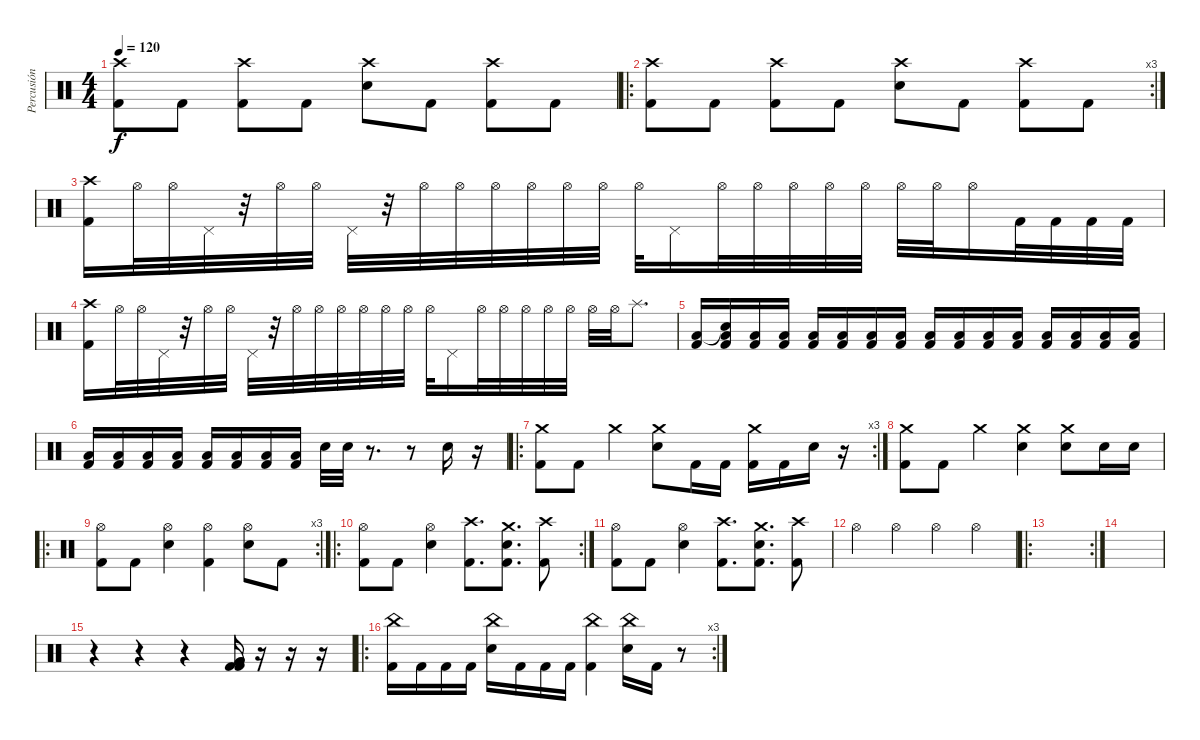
\track ("Percusión" "Percusión") {instrument percussion}
\staff {score}
\articulation defaults
\ts (4 4)
\tempo 120
\clef neutral
\ks c
("Crash high (hit)" "Kick (hit) 2").8{dy f} "Kick (hit) 2".8 ("Crash high (hit)" "Kick (hit) 2").8 "Kick (hit) 2".8 ("Crash high (hit)" "Electric Snare (hit)").8 "Kick (hit) 2".8 ("Crash high (hit)" "Kick (hit) 2").8 "Kick (hit) 2".8 |
\ro
\rc 3
("Crash high (hit)" "Kick (hit) 2").8 "Kick (hit) 2".8 ("Crash high (hit)" "Kick (hit) 2").8 "Kick (hit) 2".8 ("Crash high (hit)" "Electric Snare (hit)").8 "Kick (hit) 2".8 ("Crash high (hit)" "Kick (hit) 2").8 "Kick (hit) 2".8 |
("Crash high (hit)" "Kick (hit) 2").16 "Hi-Hat (open)".32 "Hi-Hat (open)".32 "Pedal Hi-Hat (hit)".32 r.32 "Hi-Hat (open)".32 "Hi-Hat (open)".32 "Pedal Hi-Hat (hit)".32 r.32 "Hi-Hat (open)".32 "Hi-Hat (open)".32 "Hi-Hat (open)".32 "Hi-Hat (open)".32 "Hi-Hat (open)".32 "Hi-Hat (open)".32 "Hi-Hat (open)".32 "Pedal Hi-Hat (hit)".16 "Hi-Hat (open)".32 "Hi-Hat (open)".32 "Hi-Hat (open)".32 "Hi-Hat (open)".32 "Hi-Hat (open)".32 "Hi-Hat (open)".32 "Hi-Hat (open)".32 "Hi-Hat (open)".16 "Kick (hit) 2".32 "Kick (hit) 2".32 "Kick (hit) 2".32 "Kick (hit) 2".32 |
("Crash high (hit)" "Kick (hit) 2").16 "Hi-Hat (open)".32 "Hi-Hat (open)".32 "Pedal Hi-Hat (hit)".32 r.32 "Hi-Hat (open)".32 "Hi-Hat (open)".32 "Pedal Hi-Hat (hit)".32 r.32 "Hi-Hat (open)".32 "Hi-Hat (open)".32 "Hi-Hat (open)".32 "Hi-Hat (open)".32 "Hi-Hat (open)".32 "Hi-Hat (open)".32 "Hi-Hat (open)".32 "Pedal Hi-Hat (hit)".16 "Hi-Hat (open)".32 "Hi-Hat (open)".32 "Hi-Hat (open)".32 "Hi-Hat (open)".32 "Hi-Hat (open)".32 "Hi-Hat (open)".32 "Hi-Hat (open)".32 "Splash (hit)".8{d} |
("Low Floor Tom (hit)" "Kick (hit) 2").16{volume 5} ("Snare (hit)"{t} "Low Floor Tom (hit)" "Kick (hit) 2").16 ("Low Floor Tom (hit)" "Kick (hit) 2").16 ("Low Floor Tom (hit)" "Kick (hit) 2").16 ("Low Floor Tom (hit)" "Kick (hit) 2").16 ("Low Floor Tom (hit)" "Kick (hit) 2").16 ("Low Floor Tom (hit)" "Kick (hit) 2").16 ("Low Floor Tom (hit)" "Kick (hit) 2").16{volume 7} ("Low Floor Tom (hit)" "Kick (hit) 2").16 ("Low Floor Tom (hit)" "Kick (hit) 2").16 ("Low Floor Tom (hit)" "Kick (hit) 2").16 ("Low Floor Tom (hit)" "Kick (hit) 2").16 ("Low Floor Tom (hit)" "Kick (hit) 2").16 ("Low Floor Tom (hit)" "Kick (hit) 2").16 ("Low Floor Tom (hit)" "Kick (hit) 2").16 ("Low Floor Tom (hit)" "Kick (hit) 2").16 |
("Low Floor Tom (hit)" "Kick (hit) 2").16{volume 16} ("Low Floor Tom (hit)" "Kick (hit) 2").16 ("Low Floor Tom (hit)" "Kick (hit) 2").16 ("Low Floor Tom (hit)" "Kick (hit) 2").16 ("Low Floor Tom (hit)" "Kick (hit) 2").16 ("Low Floor Tom (hit)" "Kick (hit) 2").16 ("Low Floor Tom (hit)" "Kick (hit) 2").16 ("Low Floor Tom (hit)" "Kick (hit) 2").16 "Electric Snare (hit)".32 "Electric Snare (hit)".32 r.8{d} r.8 "Electric Snare (hit)".16 r.16 |
\ro
\rc 3
("Crash medium (hit)" "Kick (hit) 2").8 "Kick (hit) 2".8 "Crash medium (hit)".4 ("Crash medium (hit)" "Electric Snare (hit)").8 "Kick (hit) 2".16 "Kick (hit) 2".16 ("Crash medium (hit)" "Kick (hit) 2").16 "Kick (hit) 2".16 "Electric Snare (hit)".16 r.16 |
("Crash medium (hit)" "Kick (hit) 2").8 "Kick (hit) 2".8 "Crash medium (hit)".4 ("Crash medium (hit)" "Electric Snare (hit)").4 ("Crash medium (hit)" "Electric Snare (hit)").8 "Electric Snare (hit)".16 "Electric Snare (hit)".16 |
\ro
\rc 3
("Hi-Hat (open)" "Kick (hit) 2").8 "Kick (hit) 2".8 ("Hi-Hat (open)" "Electric Snare (hit)").4 ("Hi-Hat (open)" "Kick (hit) 2").4 ("Hi-Hat (open)" "Electric Snare (hit)").8 "Kick (hit) 2".8 |
\ro
\rc 2
("Hi-Hat (open)" "Kick (hit) 2").8 "Kick (hit) 2".8 ("Hi-Hat (open)" "Electric Snare (hit)").4 ("Crash high (hit)" "Kick (hit) 2").8{d} ("Crash medium (hit)" "Electric Snare (hit)" "Kick (hit) 2").8{d} ("Crash high (hit)" "Kick (hit) 2").8 |
("Hi-Hat (open)" "Kick (hit) 2").8 "Kick (hit) 2".8 ("Hi-Hat (open)" "Electric Snare (hit)").4 ("Crash high (hit)" "Kick (hit) 2").8{d} ("Crash medium (hit)" "Electric Snare (hit)" "Kick (hit) 2").8{d} ("Crash high (hit)" "Kick (hit) 2").8 |
"Hi-Hat (open)".4 "Hi-Hat (open)".4 "Hi-Hat (open)".4 "Hi-Hat (open)".4 |
\ro
\rc 2
|
|
r.4 r.4 r.4 ("Very Low Tom (hit)" "Very Low Tom (hit)" "Kick (hit) 2" "Kick (hit) 2").16 r.16 r.16 r.16 |
\ro
\rc 3
("China (hit)" "Kick (hit) 2").16 "Kick (hit) 2".16 "Kick (hit) 2".16 "Kick (hit) 2".16 ("China (hit)" "Electric Snare (hit)").16 "Kick (hit) 2".16 "Kick (hit) 2".16 "Kick (hit) 2".16 ("China (hit)" "Kick (hit) 2").4 ("China (hit)" "Electric Snare (hit)").16 "Kick (hit) 2".16 r.8
